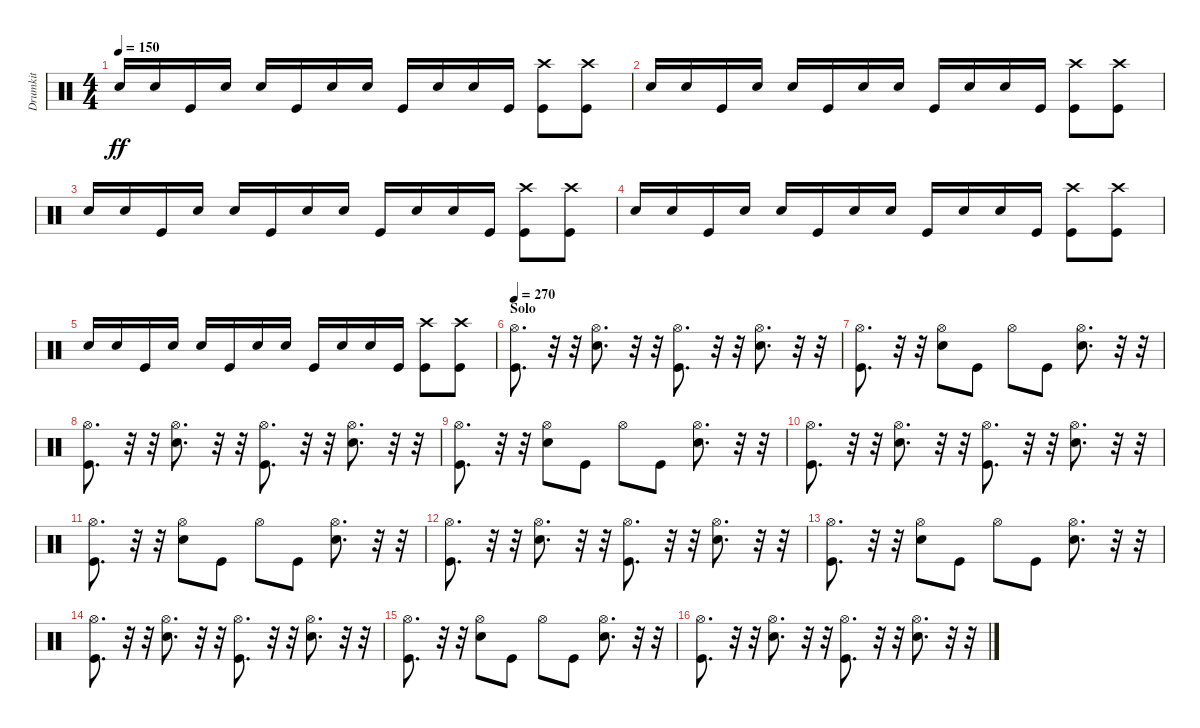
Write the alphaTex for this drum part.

\track ("Drumkit" "Drumkit") {instrument percussion}
\staff {score}
\articulation defaults
\ts (4 4)
\tempo 150
\clef neutral
\ks c "Snare (hit) 2".16{dy ff} "Snare (hit) 2".16 "Kick (hit)".16 "Snare (hit) 2".16 "Snare (hit) 2".16 "Kick (hit)".16 "Snare (hit) 2".16 "Snare (hit) 2".16 "Kick (hit)".16 "Snare (hit) 2".16 "Snare (hit) 2".16 "Kick (hit)".16
("Kick (hit)" "Crash high (hit)").8 ("Kick (hit)" "Crash high (hit)").8 |
"Snare (hit) 2".16 "Snare (hit) 2".16 "Kick (hit)".16 "Snare (hit) 2".16 "Snare (hit) 2".16 "Kick (hit)".16 "Snare (hit) 2".16 "Snare (hit) 2".16 "Kick (hit)".16 "Snare (hit) 2".16 "Snare (hit) 2".16 "Kick (hit)".16 ("Kick (hit)" "Crash high (hit)").8 ("Kick (hit)" "Crash high (hit)").8 |
"Snare (hit) 2".16 "Snare (hit) 2".16 "Kick (hit)".16 "Snare (hit) 2".16 "Snare (hit) 2".16 "Kick (hit)".16 "Snare (hit) 2".16 "Snare (hit) 2".16 "Kick (hit)".16 "Snare (hit) 2".16 "Snare (hit) 2".16 "Kick (hit)".16 ("Kick (hit)" "Crash high (hit)").8 ("Kick (hit)" "Crash high (hit)").8 |
"Snare (hit) 2".16 "Snare (hit) 2".16 "Kick (hit)".16 "Snare (hit) 2".16 "Snare (hit) 2".16 "Kick (hit)".16 "Snare (hit) 2".16 "Snare (hit) 2".16 "Kick (hit)".16 "Snare (hit) 2".16 "Snare (hit) 2".16 "Kick (hit)".16 ("Kick (hit)" "Crash high (hit)").8 ("Kick (hit)" "Crash high (hit)").8 |
"Snare (hit) 2".16 "Snare (hit) 2".16 "Kick (hit)".16 "Snare (hit) 2".16 "Snare (hit) 2".16 "Kick (hit)".16 "Snare (hit) 2".16 "Snare (hit) 2".16 "Kick (hit)".16 "Snare (hit) 2".16 "Snare (hit) 2".16 "Kick (hit)".16 ("Kick (hit)" "Crash high (hit)").8 ("Kick (hit)" "Crash high (hit)").8 |
\section ("" "Solo")
\tempo 270
("Kick (hit)" "Hi-Hat (open)").8{d} r.32 r.32 ("Snare (hit) 2" "Hi-Hat (open)").8{d} r.32 r.32 ("Kick (hit)" "Hi-Hat (open)").8{d} r.32 r.32 ("Snare (hit) 2" "Hi-Hat (open)").8{d} r.32 r.32 |
("Kick (hit)" "Hi-Hat (open)").8{d} r.32 r.32 ("Snare (hit) 2" "Hi-Hat (open)").8 "Kick (hit)".8 "Hi-Hat (open)".8 "Kick (hit)".8 ("Snare (hit) 2" "Hi-Hat (open)").8{d} r.32 r.32 |
("Kick (hit)" "Hi-Hat (open)").8{d} r.32 r.32 ("Snare (hit) 2" "Hi-Hat (open)").8{d} r.32 r.32 ("Kick (hit)" "Hi-Hat (open)").8{d} r.32 r.32 ("Snare (hit) 2" "Hi-Hat (open)").8{d} r.32 r.32 |
("Kick (hit)" "Hi-Hat (open)").8{d} r.32 r.32 ("Snare (hit) 2" "Hi-Hat (open)").8 "Kick (hit)".8 "Hi-Hat (open)".8 "Kick (hit)".8 ("Snare (hit) 2" "Hi-Hat (open)").8{d} r.32 r.32 |
("Kick (hit)" "Hi-Hat (open)").8{d} r.32 r.32 ("Snare (hit) 2" "Hi-Hat (open)").8{d} r.32 r.32 ("Kick (hit)" "Hi-Hat (open)").8{d} r.32 r.32 ("Snare (hit) 2" "Hi-Hat (open)").8{d} r.32 r.32 |
("Kick (hit)" "Hi-Hat (open)").8{d} r.32 r.32 ("Snare (hit) 2" "Hi-Hat (open)").8 "Kick (hit)".8 "Hi-Hat (open)".8 "Kick (hit)".8 ("Snare (hit) 2" "Hi-Hat (open)").8{d} r.32 r.32 |
("Kick (hit)" "Hi-Hat (open)").8{d} r.32 r.32 ("Snare (hit) 2" "Hi-Hat (open)").8{d} r.32 r.32 ("Kick (hit)" "Hi-Hat (open)").8{d} r.32 r.32 ("Snare (hit) 2" "Hi-Hat (open)").8{d} r.32 r.32 |
("Kick (hit)" "Hi-Hat (open)").8{d} r.32 r.32 ("Snare (hit) 2" "Hi-Hat (open)").8 "Kick (hit)".8 "Hi-Hat (open)".8 "Kick (hit)".8 ("Snare (hit) 2" "Hi-Hat (open)").8{d} r.32 r.32 |
("Kick (hit)" "Hi-Hat (open)").8{d} r.32 r.32 ("Snare (hit) 2" "Hi-Hat (open)").8{d} r.32 r.32 ("Kick (hit)" "Hi-Hat (open)").8{d} r.32 r.32 ("Snare (hit) 2" "Hi-Hat (open)").8{d} r.32 r.32 |
("Kick (hit)" "Hi-Hat (open)").8{d} r.32 r.32 ("Snare (hit) 2" "Hi-Hat (open)").8 "Kick (hit)".8 "Hi-Hat (open)".8 "Kick (hit)".8 ("Snare (hit) 2" "Hi-Hat (open)").8{d} r.32 r.32 |
("Kick (hit)" "Hi-Hat (open)").8{d} r.32 r.32 ("Snare (hit) 2" "Hi-Hat (open)").8{d} r.32 r.32 ("Kick (hit)" "Hi-Hat (open)").8{d} r.32 r.32 ("Snare (hit) 2" "Hi-Hat (open)").8{d} r.32 r.32
